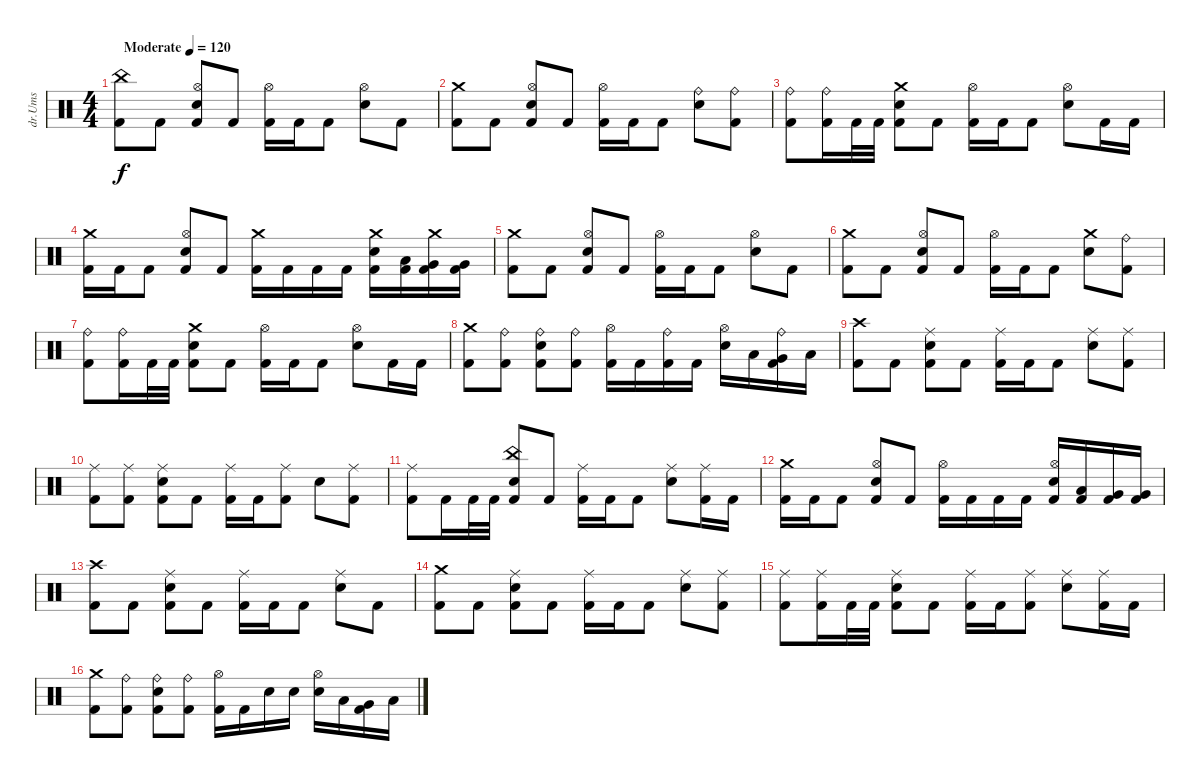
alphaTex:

\track ("dr.Ums" "dr.Ums") {instrument percussion}
\staff {score}
\articulation defaults
\ts (4 4)
\section ("" "")
\tempo (120 "Moderate")
\clef neutral
\ks c
("Kick (hit) 2" "China (hit)").8{dy f} "Kick (hit) 2".8 ("Kick (hit) 2" "Hi-Hat (open)" "Snare (hit) 2").8 "Kick (hit) 2".8 ("Kick (hit) 2" "Hi-Hat (open)").16 "Kick (hit) 2".16 "Kick (hit) 2".8 ("Snare (hit) 2" "Hi-Hat (open)").8 "Kick (hit) 2".8 |
("Kick (hit) 2" "Crash medium (hit)").8 "Kick (hit) 2".8 ("Kick (hit) 2" "Hi-Hat (open)" "Snare (hit) 2").8 "Kick (hit) 2".8 ("Kick (hit) 2" "Hi-Hat (open)").16 "Kick (hit) 2".16 "Kick (hit) 2".8 ("Snare (hit) 2" "Ride (bell)").8 ("Kick (hit) 2" "Ride (bell)").8 |
("Kick (hit) 2" "Ride (bell)").8 ("Kick (hit) 2" "Ride (bell)").16 "Kick (hit) 2".32 "Kick (hit) 2".32 ("Kick (hit) 2" "Crash medium (hit)" "Snare (hit) 2").8 "Kick (hit) 2".8 ("Kick (hit) 2" "Hi-Hat (open)").16 "Kick (hit) 2".16 "Kick (hit) 2".8 ("Snare (hit) 2" "Hi-Hat (open)").8 "Kick (hit) 2".16 "Kick (hit) 2".16 |
("Kick (hit) 2" "Crash medium (hit)").16 "Kick (hit) 2".16 "Kick (hit) 2".8 ("Kick (hit) 2" "Hi-Hat (open)" "Snare (hit) 2").8 "Kick (hit) 2".8 ("Kick (hit) 2" "Crash medium (hit)").16 "Kick (hit) 2".16 "Kick (hit) 2".16 "Kick (hit) 2".16 ("Kick (hit) 2" "Snare (hit) 2" "Crash medium (hit)").16 ("Kick (hit) 2" "Low Tom (hit)").16 ("Kick (hit) 2" "Very Low Tom (hit)" "Crash medium (hit)").16 ("Kick (hit) 2" "Very Low Tom (hit)").16 |
("Kick (hit) 2" "Crash medium (hit)").8 "Kick (hit) 2".8 ("Kick (hit) 2" "Hi-Hat (open)" "Snare (hit) 2").8 "Kick (hit) 2".8 ("Kick (hit) 2" "Hi-Hat (open)").16 "Kick (hit) 2".16 "Kick (hit) 2".8 ("Snare (hit) 2" "Hi-Hat (open)").8 "Kick (hit) 2".8 |
("Kick (hit) 2" "Crash medium (hit)").8 "Kick (hit) 2".8 ("Kick (hit) 2" "Hi-Hat (open)" "Snare (hit) 2").8 "Kick (hit) 2".8 ("Kick (hit) 2" "Hi-Hat (open)").16 "Kick (hit) 2".16 "Kick (hit) 2".8 ("Snare (hit) 2" "Crash medium (hit)").8 ("Kick (hit) 2" "Ride (bell)").8 |
("Kick (hit) 2" "Ride (bell)").8 ("Kick (hit) 2" "Ride (bell)").16 "Kick (hit) 2".32 "Kick (hit) 2".32 ("Kick (hit) 2" "Crash medium (hit)" "Snare (hit) 2").8 "Kick (hit) 2".8 ("Kick (hit) 2" "Hi-Hat (open)").16 "Kick (hit) 2".16 "Kick (hit) 2".8 ("Snare (hit) 2" "Hi-Hat (open)").8 "Kick (hit) 2".16 "Kick (hit) 2".16 |
("Kick (hit) 2" "Crash medium (hit)").8 ("Kick (hit) 2" "Ride (bell)").8 ("Kick (hit) 2" "Ride (bell)" "Snare (hit) 2").8 ("Kick (hit) 2" "Ride (bell)").8 ("Kick (hit) 2" "Hi-Hat (open)").16 "Kick (hit) 2".16 ("Kick (hit) 2" "Ride (bell)").16 "Kick (hit) 2".16 ("Snare (hit) 2" "Hi-Hat (open)").16 "Low Tom (hit)".16 ("Very Low Tom (hit)" "Ride (bell)" "Kick (hit) 2").16 "Low Floor Tom (hit)".16 |
("Kick (hit) 2" "Crash high (hit)").8 "Kick (hit) 2".8 ("Kick (hit) 2" "Ride (middle)" "Snare (hit) 2").8 "Kick (hit) 2".8 ("Kick (hit) 2" "Ride (middle)").16 "Kick (hit) 2".16 "Kick (hit) 2".8 ("Snare (hit) 2" "Ride (middle)").8 ("Kick (hit) 2" "Ride (middle)").8 |
("Kick (hit) 2" "Ride (middle)").8 ("Kick (hit) 2" "Ride (middle)").8 ("Kick (hit) 2" "Ride (middle)" "Snare (hit) 2").8 "Kick (hit) 2".8 ("Kick (hit) 2" "Ride (middle)").16 "Kick (hit) 2".16 ("Kick (hit) 2" "Ride (middle)").8 "Snare (hit) 2".8 ("Kick (hit) 2" "Ride (middle)").8 |
("Kick (hit) 2" "Ride (middle)").8 "Kick (hit) 2".16 "Kick (hit) 2".32 "Kick (hit) 2".32 ("Kick (hit) 2" "China (hit)" "Snare (hit) 2").8 "Kick (hit) 2".8 ("Kick (hit) 2" "Ride (middle)").16 "Kick (hit) 2".16 "Kick (hit) 2".8 ("Snare (hit) 2" "Ride (middle)").8 ("Kick (hit) 2" "Ride (middle)").16 "Kick (hit) 2".16 |
("Kick (hit) 2" "Crash medium (hit)").16 "Kick (hit) 2".16 "Kick (hit) 2".8 ("Kick (hit) 2" "Hi-Hat (open)" "Snare (hit) 2").8 "Kick (hit) 2".8 ("Kick (hit) 2" "Hi-Hat (open)").16 "Kick (hit) 2".16 "Kick (hit) 2".16 "Kick (hit) 2".16 ("Kick (hit) 2" "Snare (hit) 2" "Hi-Hat (open)").16 ("Kick (hit) 2" "Low Tom (hit)").16 ("Kick (hit) 2" "Very Low Tom (hit)").16 ("Kick (hit) 2" "Very Low Tom (hit)").16 |
("Kick (hit) 2" "Crash high (hit)").8 "Kick (hit) 2".8 ("Kick (hit) 2" "Ride (middle)" "Snare (hit) 2").8 "Kick (hit) 2".8 ("Kick (hit) 2" "Ride (middle)").16 "Kick (hit) 2".16 "Kick (hit) 2".8 ("Snare (hit) 2" "Ride (middle)").8 "Kick (hit) 2".8 |
("Kick (hit) 2" "Crash medium (hit)").8 "Kick (hit) 2".8 ("Kick (hit) 2" "Ride (middle)" "Snare (hit) 2").8 "Kick (hit) 2".8 ("Kick (hit) 2" "Ride (middle)").16 "Kick (hit) 2".16 "Kick (hit) 2".8 ("Snare (hit) 2" "Ride (middle)").8 ("Kick (hit) 2" "Ride (middle)").8 |
("Kick (hit) 2" "Ride (middle)").8 ("Kick (hit) 2" "Ride (middle)").16 "Kick (hit) 2".32 "Kick (hit) 2".32 ("Kick (hit) 2" "Ride (middle)" "Snare (hit) 2").8 "Kick (hit) 2".8 ("Kick (hit) 2" "Ride (middle)").16 "Kick (hit) 2".16 ("Kick (hit) 2" "Ride (middle)").8 ("Snare (hit) 2" "Ride (middle)").8 ("Kick (hit) 2" "Ride (middle)").16 "Kick (hit) 2".16 |
("Kick (hit) 2" "Crash medium (hit)").8 ("Kick (hit) 2" "Ride (bell)").8 ("Kick (hit) 2" "Ride (bell)" "Snare (hit) 2").8 ("Kick (hit) 2" "Ride (bell)").8 ("Kick (hit) 2" "Hi-Hat (open)").16 "Kick (hit) 2".16 "Snare (hit) 2".16 "Snare (hit) 2".16 ("Snare (hit) 2" "Hi-Hat (open)").16 "Low Tom (hit)".16 ("Very Low Tom (hit)" "Kick (hit) 2").16 "Low Floor Tom (hit)".16
